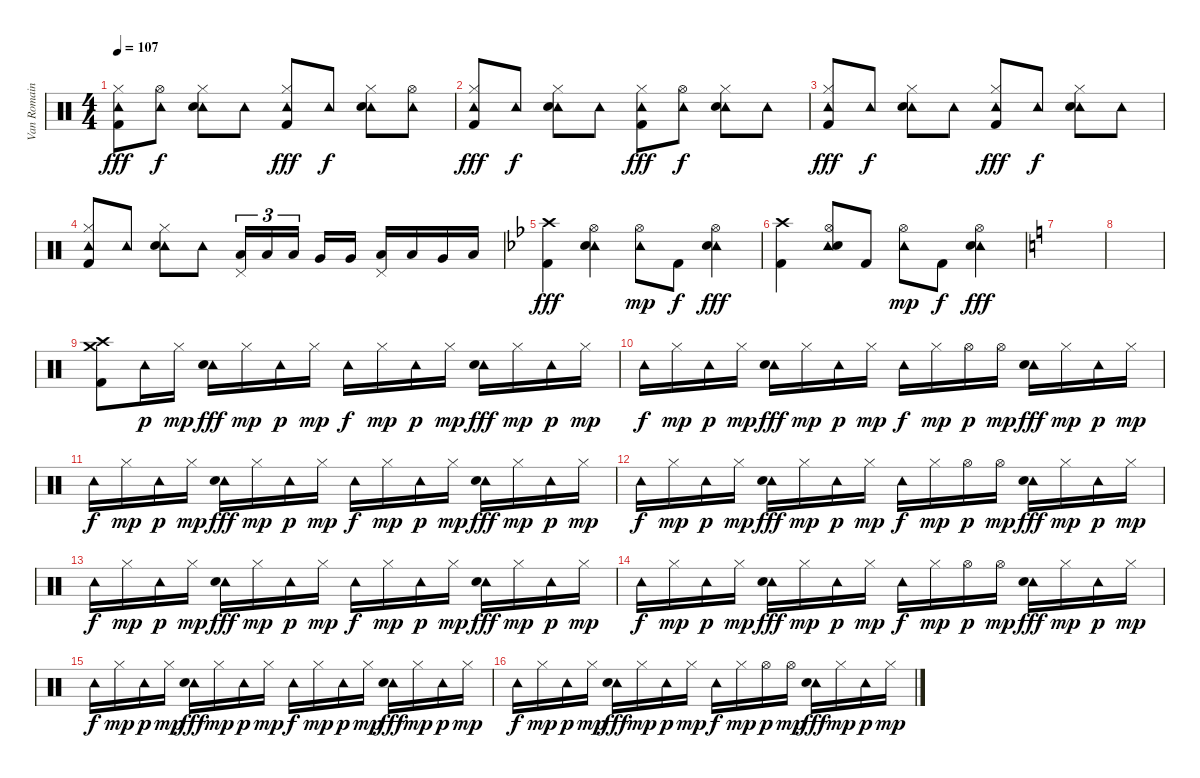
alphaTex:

\track ("Van Romaine" "Van Romain") {instrument percussion}
\staff {score}
\articulation defaults
\ts (4 4)
\tempo 107
\clef neutral
\ks c
("Tambourine (hit)" "Hi-Hat (closed)" "Kick (hit) 2").8{dy fff} ("Tambourine (hit)" "Hi-Hat (open)").8{dy f} ("Tambourine (hit)" "Hi-Hat (closed)" "Electric Snare (hit)").8 "Tambourine (hit)".8 ("Tambourine (hit)" "Hi-Hat (closed)" "Kick (hit) 2").8{dy fff} "Tambourine (hit)".8{dy f} ("Tambourine (hit)" "Hi-Hat (closed)" "Electric Snare (hit)").8 ("Tambourine (hit)" "Hi-Hat (open)").8 |
("Tambourine (hit)" "Hi-Hat (closed)" "Kick (hit) 2").8{dy fff} "Tambourine (hit)".8{dy f} ("Tambourine (hit)" "Hi-Hat (closed)" "Electric Snare (hit)").8 "Tambourine (hit)".8 ("Tambourine (hit)" "Hi-Hat (closed)" "Kick (hit) 2").8{dy fff} ("Tambourine (hit)" "Hi-Hat (open)").8{dy f} ("Tambourine (hit)" "Hi-Hat (closed)" "Electric Snare (hit)").8 "Tambourine (hit)".8 |
("Tambourine (hit)" "Hi-Hat (closed)" "Kick (hit) 2").8{dy fff} "Tambourine (hit)".8{dy f} ("Tambourine (hit)" "Hi-Hat (closed)" "Electric Snare (hit)").8 "Tambourine (hit)".8 ("Tambourine (hit)" "Hi-Hat (closed)" "Kick (hit) 2").8{dy fff} "Tambourine (hit)".8{dy f} ("Tambourine (hit)" "Hi-Hat (closed)" "Electric Snare (hit)").8 "Tambourine (hit)".8 |
("Tambourine (hit)" "Hi-Hat (closed)" "Kick (hit) 2").8 "Tambourine (hit)".8 ("Tambourine (hit)" "Hi-Hat (closed)" "Electric Snare (hit)").8 "Tambourine (hit)".8 ("Pedal Hi-Hat (hit)" "Low Tom (hit)").16{tu (3 2)} "Low Tom (hit)".16{tu (3 2)} "Low Tom (hit)".16{tu (3 2)} "Very Low Tom (hit)".16 "Very Low Tom (hit)".16 ("Pedal Hi-Hat (hit)" "Low Tom (hit)").16 "Low Tom (hit)".16 "Very Low Tom (hit)".16 "Low Floor Tom (hit)".16 |
\ks bb
("Crash high (hit)" "Kick (hit) 2").4{dy fff volume 16} ("Hi-Hat (open)" "Tambourine (hit)" "Electric Snare (hit)").4 ("Hi-Hat (open)" "Tambourine (hit)").8{dy mp} "Kick (hit) 2".8{dy f} ("Hi-Hat (open)" "Tambourine (hit)" "Electric Snare (hit)").4{dy fff} |
("Crash high (hit)" "Kick (hit) 2").4 ("Hi-Hat (open)" "Tambourine (hit)" "Electric Snare (hit)").8 "Kick (hit) 2".8 ("Hi-Hat (open)" "Tambourine (hit)").8{dy mp} "Kick (hit) 2".8{dy f} ("Hi-Hat (open)" "Tambourine (hit)" "Electric Snare (hit)").4{dy fff} |
\ks c
|
|
("Crash medium (hit)" "Crash high (hit)" "Kick (hit) 2").8 "Tambourine (hit)".16{dy p} "Hi-Hat (closed)".16{dy mp} ("Tambourine (hit)" "Electric Snare (hit)").16{dy fff} "Hi-Hat (closed)".16{dy mp} "Tambourine (hit)".16{dy p} "Hi-Hat (closed)".16{dy mp} "Tambourine (hit)".16{dy f} "Hi-Hat (closed)".16{dy mp} "Tambourine (hit)".16{dy p} "Hi-Hat (closed)".16{dy mp} ("Tambourine (hit)" "Electric Snare (hit)").16{dy fff} "Hi-Hat (closed)".16{dy mp} "Tambourine (hit)".16{dy p} "Hi-Hat (closed)".16{dy mp} |
"Tambourine (hit)".16{dy f} "Hi-Hat (closed)".16{dy mp} "Tambourine (hit)".16{dy p} "Hi-Hat (closed)".16{dy mp} ("Tambourine (hit)" "Electric Snare (hit)").16{dy fff} "Hi-Hat (closed)".16{dy mp} "Tambourine (hit)".16{dy p} "Hi-Hat (closed)".16{dy mp} "Tambourine (hit)".16{dy f} "Hi-Hat (closed)".16{dy mp} "Hi-Hat (open)".16{dy p} "Hi-Hat (open)".16{dy mp} ("Tambourine (hit)" "Electric Snare (hit)").16{dy fff} "Hi-Hat (closed)".16{dy mp} "Tambourine (hit)".16{dy p} "Hi-Hat (closed)".16{dy mp} |
"Tambourine (hit)".16{dy f} "Hi-Hat (closed)".16{dy mp} "Tambourine (hit)".16{dy p} "Hi-Hat (closed)".16{dy mp} ("Tambourine (hit)" "Electric Snare (hit)").16{dy fff} "Hi-Hat (closed)".16{dy mp} "Tambourine (hit)".16{dy p} "Hi-Hat (closed)".16{dy mp} "Tambourine (hit)".16{dy f} "Hi-Hat (closed)".16{dy mp} "Tambourine (hit)".16{dy p} "Hi-Hat (closed)".16{dy mp} ("Tambourine (hit)" "Electric Snare (hit)").16{dy fff} "Hi-Hat (closed)".16{dy mp} "Tambourine (hit)".16{dy p} "Hi-Hat (closed)".16{dy mp} |
"Tambourine (hit)".16{dy f} "Hi-Hat (closed)".16{dy mp} "Tambourine (hit)".16{dy p} "Hi-Hat (closed)".16{dy mp} ("Tambourine (hit)" "Electric Snare (hit)").16{dy fff} "Hi-Hat (closed)".16{dy mp} "Tambourine (hit)".16{dy p} "Hi-Hat (closed)".16{dy mp} "Tambourine (hit)".16{dy f} "Hi-Hat (closed)".16{dy mp} "Hi-Hat (open)".16{dy p} "Hi-Hat (open)".16{dy mp} ("Tambourine (hit)" "Electric Snare (hit)").16{dy fff} "Hi-Hat (closed)".16{dy mp} "Tambourine (hit)".16{dy p} "Hi-Hat (closed)".16{dy mp} |
"Tambourine (hit)".16{dy f} "Hi-Hat (closed)".16{dy mp} "Tambourine (hit)".16{dy p} "Hi-Hat (closed)".16{dy mp} ("Tambourine (hit)" "Electric Snare (hit)").16{dy fff} "Hi-Hat (closed)".16{dy mp} "Tambourine (hit)".16{dy p} "Hi-Hat (closed)".16{dy mp} "Tambourine (hit)".16{dy f} "Hi-Hat (closed)".16{dy mp} "Tambourine (hit)".16{dy p} "Hi-Hat (closed)".16{dy mp} ("Tambourine (hit)" "Electric Snare (hit)").16{dy fff} "Hi-Hat (closed)".16{dy mp} "Tambourine (hit)".16{dy p} "Hi-Hat (closed)".16{dy mp} |
"Tambourine (hit)".16{dy f} "Hi-Hat (closed)".16{dy mp} "Tambourine (hit)".16{dy p} "Hi-Hat (closed)".16{dy mp} ("Tambourine (hit)" "Electric Snare (hit)").16{dy fff} "Hi-Hat (closed)".16{dy mp} "Tambourine (hit)".16{dy p} "Hi-Hat (closed)".16{dy mp} "Tambourine (hit)".16{dy f} "Hi-Hat (closed)".16{dy mp} "Hi-Hat (open)".16{dy p} "Hi-Hat (open)".16{dy mp} ("Tambourine (hit)" "Electric Snare (hit)").16{dy fff} "Hi-Hat (closed)".16{dy mp} "Tambourine (hit)".16{dy p} "Hi-Hat (closed)".16{dy mp} |
"Tambourine (hit)".16{dy f} "Hi-Hat (closed)".16{dy mp} "Tambourine (hit)".16{dy p} "Hi-Hat (closed)".16{dy mp} ("Tambourine (hit)" "Electric Snare (hit)").16{dy fff} "Hi-Hat (closed)".16{dy mp} "Tambourine (hit)".16{dy p} "Hi-Hat (closed)".16{dy mp} "Tambourine (hit)".16{dy f} "Hi-Hat (closed)".16{dy mp} "Tambourine (hit)".16{dy p} "Hi-Hat (closed)".16{dy mp} ("Tambourine (hit)" "Electric Snare (hit)").16{dy fff} "Hi-Hat (closed)".16{dy mp} "Tambourine (hit)".16{dy p} "Hi-Hat (closed)".16{dy mp} |
"Tambourine (hit)".16{dy f} "Hi-Hat (closed)".16{dy mp} "Tambourine (hit)".16{dy p} "Hi-Hat (closed)".16{dy mp} ("Tambourine (hit)" "Electric Snare (hit)").16{dy fff} "Hi-Hat (closed)".16{dy mp} "Tambourine (hit)".16{dy p} "Hi-Hat (closed)".16{dy mp} "Tambourine (hit)".16{dy f} "Hi-Hat (closed)".16{dy mp} "Hi-Hat (open)".16{dy p} "Hi-Hat (open)".16{dy mp} ("Tambourine (hit)" "Electric Snare (hit)").16{dy fff} "Hi-Hat (closed)".16{dy mp} "Tambourine (hit)".16{dy p} "Hi-Hat (closed)".16{dy mp}
